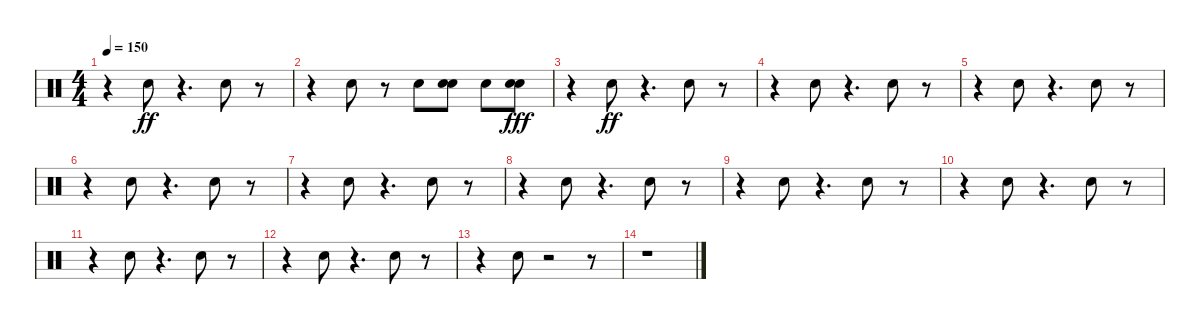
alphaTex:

\track "" {instrument percussion}
\staff {score}
\articulation defaults
\ts (4 4)
\tempo 150
\clef neutral
\ks c
r.4{dy ff} "Electric Snare (hit)".8 r.4{d} "Electric Snare (hit)".8 r.8 |
r.4 "Electric Snare (hit)".8 r.8 "Electric Snare (hit)".8 ("Electric Snare (hit)" "Electric Snare (hit)").8 "Electric Snare (hit)".8 ("Electric Snare (hit)" "Electric Snare (hit)").8{dy fff} |
r.4 "Electric Snare (hit)".8{dy ff} r.4{d} "Electric Snare (hit)".8 r.8 |
r.4 "Electric Snare (hit)".8 r.4{d} "Electric Snare (hit)".8 r.8 |
r.4 "Electric Snare (hit)".8 r.4{d} "Electric Snare (hit)".8 r.8 |
r.4 "Electric Snare (hit)".8 r.4{d} "Electric Snare (hit)".8 r.8 |
r.4 "Electric Snare (hit)".8 r.4{d} "Electric Snare (hit)".8 r.8 |
r.4 "Electric Snare (hit)".8 r.4{d} "Electric Snare (hit)".8 r.8 |
r.4 "Electric Snare (hit)".8 r.4{d} "Electric Snare (hit)".8 r.8 |
r.4 "Electric Snare (hit)".8 r.4{d} "Electric Snare (hit)".8 r.8 |
r.4 "Electric Snare (hit)".8 r.4{d} "Electric Snare (hit)".8 r.8 |
r.4 "Electric Snare (hit)".8 r.4{d} "Electric Snare (hit)".8 r.8 |
r.4 "Electric Snare (hit)".8 r.2 r.8 |
r.1
